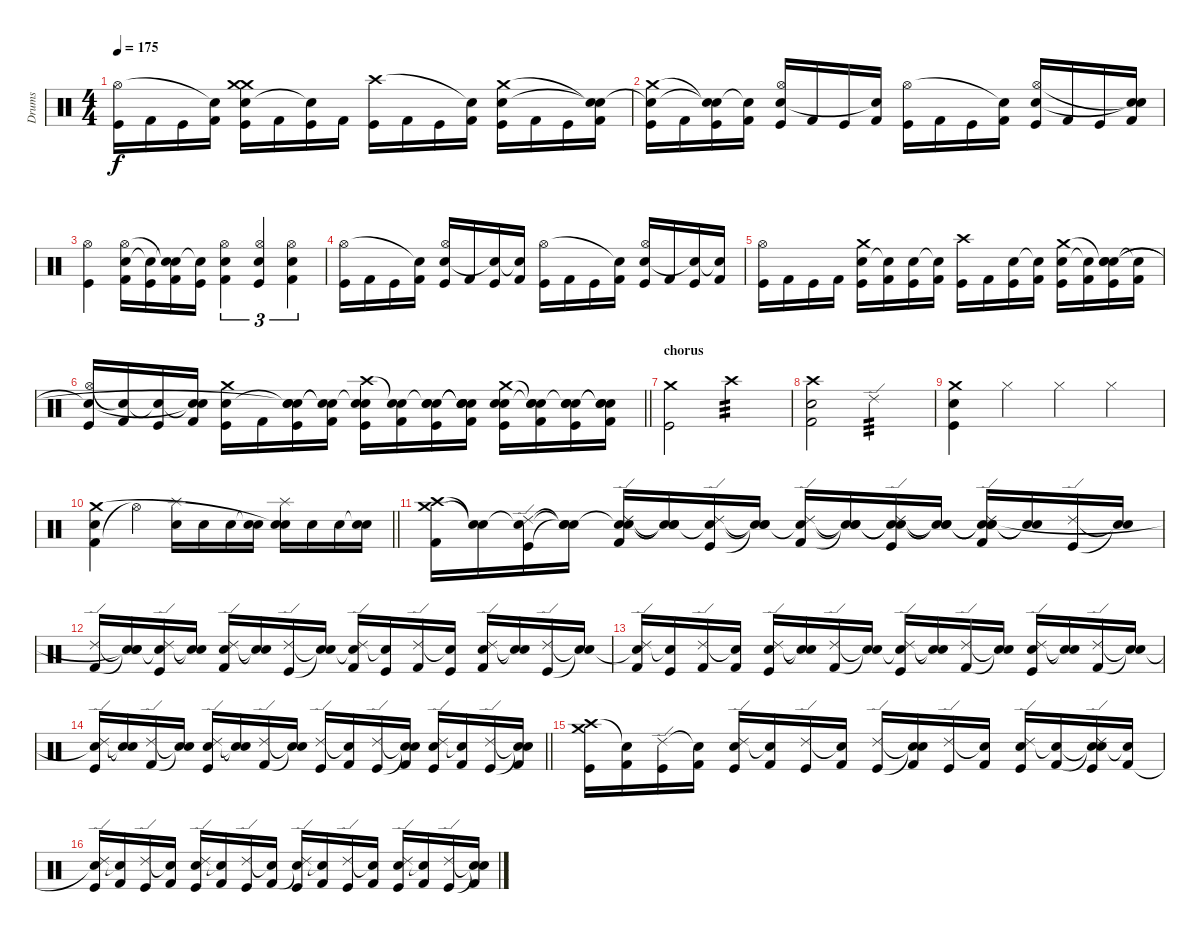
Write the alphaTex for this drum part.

\track ("Drums" "Drums") {instrument percussion}
\staff {score}
\articulation defaults
\ts (4 4)
\tempo 175
\clef neutral
\ks c
("Kick (hit)" "Hi-Hat (open)").16{dy f} "Kick (hit) 2".16 "Kick (hit)".16 ("Kick (hit) 2" "Snare (hit)"{t}).16 ("Kick (hit)" "Snare (hit) 2" "Crash medium (hit)"{t} "Crash medium (hit)").16 "Kick (hit) 2".16 ("Kick (hit)" "Snare (hit)"{t}).16 "Kick (hit) 2".16 ("Kick (hit)" "Crash high (hit)").16 "Kick (hit) 2".16 "Kick (hit)".16 ("Kick (hit) 2" "Snare (hit)"{t}).16 ("Kick (hit)" "Snare (hit) 2" "Crash medium (hit)").16 "Kick (hit) 2".16 "Kick (hit)".16 ("Kick (hit) 2" "Snare (hit)"{t} "Snare (hit)"{t}).16 |
("Kick (hit)" "Snare (hit)"{t} "Crash medium (hit)").16 "Kick (hit) 2".16 ("Kick (hit)" "Snare (hit)"{t} "Snare (hit)"{t}).16 ("Kick (hit) 2" "Snare (hit)"{t}).16 ("Kick (hit)" "Snare (hit) 2" "Hi-Hat (open)").16 "Kick (hit) 2".16 "Kick (hit)".16 ("Kick (hit) 2" "Snare (hit)"{t}).16 ("Kick (hit)" "Hi-Hat (open)").16 "Kick (hit) 2".16 "Kick (hit)".16 ("Kick (hit) 2" "Snare (hit)"{t}).16 ("Kick (hit)" "Snare (hit) 2" "Hi-Hat (open)").16 "Kick (hit) 2".16 "Kick (hit)".16 ("Kick (hit) 2" "Snare (hit)"{t} "Snare (hit)"{t}).16 |
("Kick (hit)" "Hi-Hat (open)").4 ("Kick (hit) 2" "Snare (hit) 2" "Hi-Hat (open)").16 ("Kick (hit)" "Snare (hit)"{t}).16 ("Kick (hit) 2" "Snare (hit)"{t} "Snare (hit)"{t}).16 ("Kick (hit)" "Snare (hit)"{t}).16 ("Kick (hit) 2" "Snare (hit) 2" "Hi-Hat (open)").4{tu (3 2)} ("Kick (hit)" "Snare (hit) 2" "Hi-Hat (open)").4{tu (3 2)} ("Kick (hit) 2" "Snare (hit) 2" "Hi-Hat (open)").4{tu (3 2)} |
("Kick (hit)" "Hi-Hat (open)").16 "Kick (hit) 2".16 "Kick (hit)".16 ("Kick (hit) 2" "Snare (hit)"{t}).16 ("Kick (hit)" "Snare (hit) 2" "Hi-Hat (open)").16 "Kick (hit) 2".16 ("Kick (hit)" "Snare (hit)"{t}).16 ("Kick (hit) 2" "Snare (hit)"{t}).16 ("Kick (hit)" "Hi-Hat (open)").16 "Kick (hit) 2".16 "Kick (hit)".16 ("Kick (hit) 2" "Snare (hit)"{t}).16 ("Kick (hit)" "Snare (hit) 2" "Hi-Hat (open)").16 "Kick (hit) 2".16 ("Kick (hit)" "Snare (hit)"{t}).16 ("Kick (hit) 2" "Snare (hit)"{t}).16 |
("Kick (hit)" "Hi-Hat (open)").16 "Kick (hit) 2".16 "Kick (hit)".16 "Kick (hit) 2".16 ("Kick (hit)" "Snare (hit) 2" "Crash medium (hit)").16 ("Kick (hit) 2" "Snare (hit)"{t}).16 ("Kick (hit)" "Snare (hit) 2").16 ("Kick (hit) 2" "Snare (hit)"{t}).16 ("Kick (hit)" "Crash high (hit)").16 "Kick (hit) 2".16 ("Kick (hit)" "Snare (hit) 2").16 ("Kick (hit) 2" "Snare (hit)"{t}).16 ("Kick (hit)" "Snare (hit) 2" "Crash medium (hit)").16 ("Kick (hit) 2" "Snare (hit)"{t}).16 ("Kick (hit)" "Snare (hit) 2" "Snare (hit)"{t} "Snare (hit)").16 ("Kick (hit) 2" "Snare (hit)"{t}).16 |
\barLineRight lightlight
("Kick (hit)" "Hi-Hat (open)" "Snare (hit)"{t}).16 ("Kick (hit) 2" "Snare (hit)"{t}).16 ("Kick (hit)" "Snare (hit)"{t}).16 ("Kick (hit) 2" "Snare (hit)"{t} "Snare (hit)"{t}).16 ("Kick (hit)" "Snare (hit) 2" "Crash medium (hit)").16 "Kick (hit) 2".16 ("Kick (hit)" "Snare (hit)"{t} "Snare (hit) 2" "Snare (hit)"{t}).16 ("Kick (hit) 2" "Snare (hit)"{t} "Snare (hit)"{t}).16 ("Kick (hit)" "Crash high (hit)" "Snare (hit)"{t} "Snare (hit) 2").16 ("Kick (hit) 2" "Snare (hit)"{t} "Snare (hit) 2").16 ("Kick (hit)" "Snare (hit) 2" "Snare (hit)"{t} "Snare (hit) 2").16 ("Kick (hit) 2" "Snare (hit)"{t} "Snare (hit)"{t} "Snare (hit)"{t} "Snare (hit) 2").16 ("Kick (hit)" "Snare (hit) 2" "Crash medium (hit)" "Snare (hit) 2").16 ("Kick (hit) 2" "Snare (hit)"{t} "Snare (hit)"{t} "Snare (hit) 2").16 ("Kick (hit)" "Snare (hit) 2" "Snare (hit)"{t} "Snare (hit) 2").16 ("Kick (hit) 2" "Snare (hit)"{t} "Snare (hit)"{t} "Snare (hit) 2").16 |
\section ("" "chorus")
("Kick (hit)" "Crash medium (hit)").2 "Crash high (hit)".2{tp 3} |
("Kick (hit) 2" "Snare (hit) 2" "Crash high (hit)").2 "Ride (edge) 2".2{tp 3} |
("Kick (hit)" "Snare (hit) 2" "Crash medium (hit)").4 "Hi-Hat (closed)".4 "Hi-Hat (closed)".4 "Hi-Hat (closed)".4 |
\barLineRight lightlight
("Kick (hit) 2" "Snare (hit) 2" "Crash medium (hit)").4 "Hi-Hat (open)"{t}.4 ("Splash (hit)" "Snare (hit) 2").16 "Snare (hit) 2".16 "Snare (hit) 2".16 ("Snare (hit)"{t} "Snare (hit) 2").16 ("Splash (hit)" "Snare (hit) 2" "Snare (hit)"{t}).16 "Snare (hit) 2".16 "Snare (hit) 2".16 ("Snare (hit)"{t} "Snare (hit) 2").16 |
\section ("" "")
("Crash high (hit)" "Crash medium (hit)" "Kick (hit) 2").16 ("Snare (hit)"{t} "Snare (hit)"{t}).16 ("Snare (hit)"{t} "Ride (edge) 2" "Kick (hit)").16 ("Snare (hit)"{t} "Snare (hit)"{t} "Snare (hit)"{t}).16 ("Snare (hit)"{t} "Ride (edge) 2" "Snare (hit) 2" "Kick (hit) 2").16 ("Snare (hit)"{t} "Snare (hit)"{t} "Snare (hit)"{t}).16 ("Snare (hit)"{t} "Ride (edge) 2" "Kick (hit)").16 ("Snare (hit)"{t} "Snare (hit)"{t} "Snare (hit)"{t}).16 ("Snare (hit)"{t} "Ride (edge) 2" "Kick (hit) 2").16 ("Snare (hit)"{t} "Snare (hit)"{t} "Snare (hit)"{t}).16 ("Snare (hit)"{t} "Ride (edge) 2" "Snare (hit)"{t} "Kick (hit)").16 ("Snare (hit)"{t} "Snare (hit)"{t} "Snare (hit)"{t}).16 ("Snare (hit)"{t} "Snare (hit)"{t} "Ride (edge) 2" "Snare (hit) 2" "Kick (hit) 2").16 ("Snare (hit)"{t} "Snare (hit)"{t}).16 ("Ride (edge) 2" "Kick (hit)").16 ("Snare (hit)"{t} "Snare (hit)"{t}).16 |
("Ride (edge) 2" "Kick (hit) 2").16 ("Snare (hit)"{t} "Snare (hit)"{t} "Snare (hit)"{t}).16 ("Ride (edge) 2" "Snare (hit)"{t} "Kick (hit)").16 ("Snare (hit)"{t} "Snare (hit)"{t}).16 ("Ride (edge) 2" "Snare (hit) 2" "Kick (hit) 2").16 ("Snare (hit)"{t} "Snare (hit)"{t}).16 ("Ride (edge) 2" "Kick (hit)").16 ("Snare (hit)"{t} "Snare (hit)"{t}).16 ("Ride (edge) 2" "Snare (hit)"{t} "Kick (hit) 2").16 ("Snare (hit)"{t} "Kick (hit)").16 ("Ride (edge) 2" "Kick (hit) 2").16 ("Snare (hit)"{t} "Kick (hit)").16 ("Ride (edge) 2" "Snare (hit) 2" "Kick (hit) 2").16 ("Snare (hit)"{t} "Snare (hit)"{t}).16 ("Ride (edge) 2" "Kick (hit)").16 ("Snare (hit)"{t} "Snare (hit)"{t}).16 |
("Ride (edge) 2" "Snare (hit)"{t} "Kick (hit) 2").16 ("Snare (hit)"{t} "Kick (hit)").16 ("Ride (edge) 2" "Kick (hit) 2").16 ("Snare (hit)"{t} "Kick (hit) 2").16 ("Ride (edge) 2" "Snare (hit) 2" "Kick (hit)").16 ("Snare (hit)"{t} "Snare (hit)"{t}).16 ("Ride (edge) 2" "Kick (hit) 2").16 ("Snare (hit)"{t} "Snare (hit)"{t}).16 ("Ride (edge) 2" "Snare (hit)"{t} "Kick (hit)").16 ("Snare (hit)"{t} "Snare (hit)"{t}).16 ("Ride (edge) 2" "Kick (hit) 2").16 ("Snare (hit)"{t} "Snare (hit)"{t}).16 ("Ride (edge) 2" "Snare (hit) 2" "Kick (hit)").16 ("Snare (hit)"{t} "Snare (hit)"{t}).16 ("Ride (edge) 2" "Kick (hit) 2").16 ("Snare (hit)"{t} "Snare (hit)"{t}).16 |
\barLineRight lightlight
("Ride (edge) 2" "Snare (hit)"{t} "Kick (hit)").16 ("Snare (hit)"{t} "Snare (hit)"{t}).16 ("Ride (edge) 2" "Kick (hit) 2").16 ("Snare (hit)"{t} "Snare (hit)"{t}).16 ("Ride (edge) 2" "Snare (hit) 2" "Kick (hit)").16 ("Snare (hit)"{t} "Snare (hit)"{t}).16 ("Ride (edge) 2" "Kick (hit) 2").16 ("Snare (hit)"{t} "Snare (hit)"{t}).16 ("Ride (edge) 2" "Kick (hit)").16 ("Snare (hit)"{t} "Kick (hit) 2").16 ("Ride (edge) 2" "Kick (hit)").16 ("Snare (hit)"{t} "Snare (hit)"{t} "Kick (hit) 2").16 ("Ride (edge) 2" "Snare (hit) 2" "Kick (hit)").16 ("Snare (hit)"{t} "Kick (hit) 2").16 ("Ride (edge) 2" "Kick (hit)").16 ("Snare (hit)"{t} "Snare (hit)"{t} "Kick (hit) 2").16 |
("Crash high (hit)" "Crash medium (hit)" "Kick (hit)").16 ("Snare (hit)"{t} "Kick (hit) 2").16 ("Ride (edge) 2" "Kick (hit)").16 ("Snare (hit)"{t} "Kick (hit) 2").16 ("Ride (edge) 2" "Snare (hit) 2" "Kick (hit)").16 ("Snare (hit)"{t} "Kick (hit) 2").16 ("Ride (edge) 2" "Kick (hit)").16 ("Snare (hit)"{t} "Kick (hit) 2").16 ("Ride (edge) 2" "Kick (hit)").16 ("Snare (hit)"{t} "Snare (hit)"{t} "Kick (hit) 2").16 ("Ride (edge) 2" "Kick (hit)").16 ("Snare (hit)"{t} "Kick (hit) 2").16 ("Ride (edge) 2" "Snare (hit) 2" "Kick (hit)").16 ("Snare (hit)"{t} "Kick (hit) 2").16 ("Snare (hit)"{t} "Snare (hit)"{t} "Ride (edge) 2" "Kick (hit)").16 ("Snare (hit)"{t} "Kick (hit) 2").16 |
("Ride (edge) 2" "Snare (hit)"{t} "Kick (hit)").16 ("Snare (hit)"{t} "Kick (hit) 2").16 ("Ride (edge) 2" "Kick (hit)").16 ("Snare (hit)"{t} "Kick (hit) 2").16 ("Ride (edge) 2" "Snare (hit) 2" "Kick (hit)").16 ("Snare (hit)"{t} "Kick (hit) 2").16 ("Ride (edge) 2" "Kick (hit)").16 ("Snare (hit)"{t} "Kick (hit) 2").16 ("Ride (edge) 2" "Snare (hit)"{t} "Kick (hit)").16 ("Snare (hit)"{t} "Kick (hit) 2").16 ("Ride (edge) 2" "Kick (hit)").16 ("Snare (hit)"{t} "Kick (hit) 2").16 ("Ride (edge) 2" "Snare (hit) 2" "Kick (hit)").16 ("Snare (hit)"{t} "Kick (hit) 2").16 ("Ride (edge) 2" "Kick (hit)").16 ("Snare (hit)"{t} "Snare (hit)"{t} "Kick (hit) 2").16
